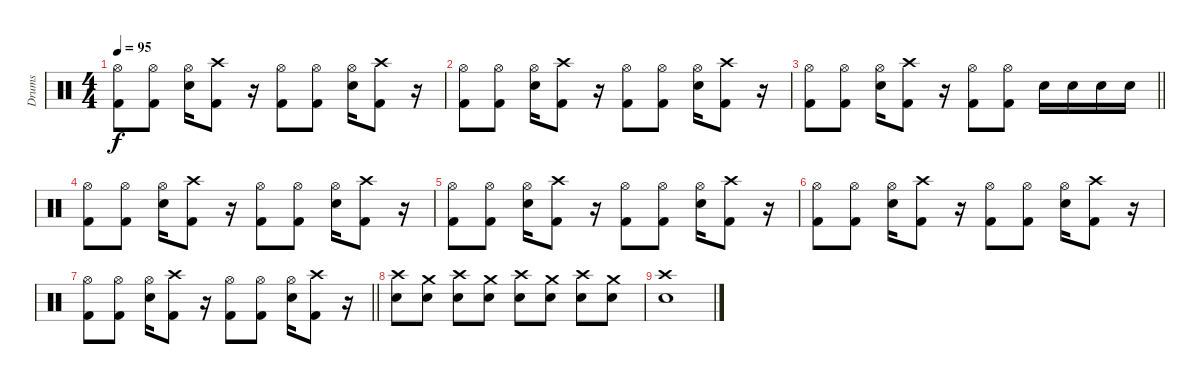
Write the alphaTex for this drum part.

\track ("Drums" "Drums") {instrument percussion}
\staff {score}
\articulation defaults
\ts (4 4)
\tempo 95
\clef neutral
\ks c
("Hi-Hat (open)" "Kick (hit) 2").8{dy f} ("Hi-Hat (open)" "Kick (hit) 2").8 ("Hi-Hat (open)" "Electric Snare (hit)").16 ("Crash high (hit)" "Kick (hit) 2").8 r.16 ("Hi-Hat (open)" "Kick (hit) 2").8 ("Hi-Hat (open)" "Kick (hit) 2").8 ("Hi-Hat (open)" "Electric Snare (hit)").16 ("Crash high (hit)" "Kick (hit) 2").8 r.16 |
("Hi-Hat (open)" "Kick (hit) 2").8 ("Hi-Hat (open)" "Kick (hit) 2").8 ("Hi-Hat (open)" "Electric Snare (hit)").16 ("Crash high (hit)" "Kick (hit) 2").8 r.16 ("Hi-Hat (open)" "Kick (hit) 2").8 ("Hi-Hat (open)" "Kick (hit) 2").8 ("Hi-Hat (open)" "Electric Snare (hit)").16 ("Crash high (hit)" "Kick (hit) 2").8 r.16 |
\barLineRight lightlight
("Hi-Hat (open)" "Kick (hit) 2").8 ("Hi-Hat (open)" "Kick (hit) 2").8 ("Hi-Hat (open)" "Electric Snare (hit)").16 ("Crash high (hit)" "Kick (hit) 2").8 r.16 ("Hi-Hat (open)" "Kick (hit) 2").8 ("Hi-Hat (open)" "Kick (hit) 2").8 "Electric Snare (hit)".16 "Electric Snare (hit)".16 "Electric Snare (hit)".16 "Electric Snare (hit)".16 |
("Hi-Hat (open)" "Kick (hit) 2").8 ("Hi-Hat (open)" "Kick (hit) 2").8 ("Hi-Hat (open)" "Electric Snare (hit)").16 ("Crash high (hit)" "Kick (hit) 2").8 r.16 ("Hi-Hat (open)" "Kick (hit) 2").8 ("Hi-Hat (open)" "Kick (hit) 2").8 ("Hi-Hat (open)" "Electric Snare (hit)").16 ("Crash high (hit)" "Kick (hit) 2").8 r.16 |
("Hi-Hat (open)" "Kick (hit) 2").8 ("Hi-Hat (open)" "Kick (hit) 2").8 ("Hi-Hat (open)" "Electric Snare (hit)").16 ("Crash high (hit)" "Kick (hit) 2").8 r.16 ("Hi-Hat (open)" "Kick (hit) 2").8 ("Hi-Hat (open)" "Kick (hit) 2").8 ("Hi-Hat (open)" "Electric Snare (hit)").16 ("Crash high (hit)" "Kick (hit) 2").8 r.16 |
("Hi-Hat (open)" "Kick (hit) 2").8 ("Hi-Hat (open)" "Kick (hit) 2").8 ("Hi-Hat (open)" "Electric Snare (hit)").16 ("Crash high (hit)" "Kick (hit) 2").8 r.16 ("Hi-Hat (open)" "Kick (hit) 2").8 ("Hi-Hat (open)" "Kick (hit) 2").8 ("Hi-Hat (open)" "Electric Snare (hit)").16 ("Crash high (hit)" "Kick (hit) 2").8 r.16 |
\barLineRight lightlight
("Hi-Hat (open)" "Kick (hit) 2").8 ("Hi-Hat (open)" "Kick (hit) 2").8 ("Hi-Hat (open)" "Electric Snare (hit)").16 ("Crash high (hit)" "Kick (hit) 2").8 r.16 ("Hi-Hat (open)" "Kick (hit) 2").8 ("Hi-Hat (open)" "Kick (hit) 2").8 ("Hi-Hat (open)" "Electric Snare (hit)").16 ("Crash high (hit)" "Kick (hit) 2").8 r.16 |
("Crash high (hit)" "Electric Snare (hit)").8 ("Crash medium (hit)" "Electric Snare (hit)").8 ("Crash high (hit)" "Electric Snare (hit)").8 ("Crash medium (hit)" "Electric Snare (hit)").8 ("Crash high (hit)" "Electric Snare (hit)").8 ("Crash medium (hit)" "Electric Snare (hit)").8 ("Crash high (hit)" "Electric Snare (hit)").8 ("Crash medium (hit)" "Electric Snare (hit)").8 |
("Crash high (hit)" "Electric Snare (hit)").1
